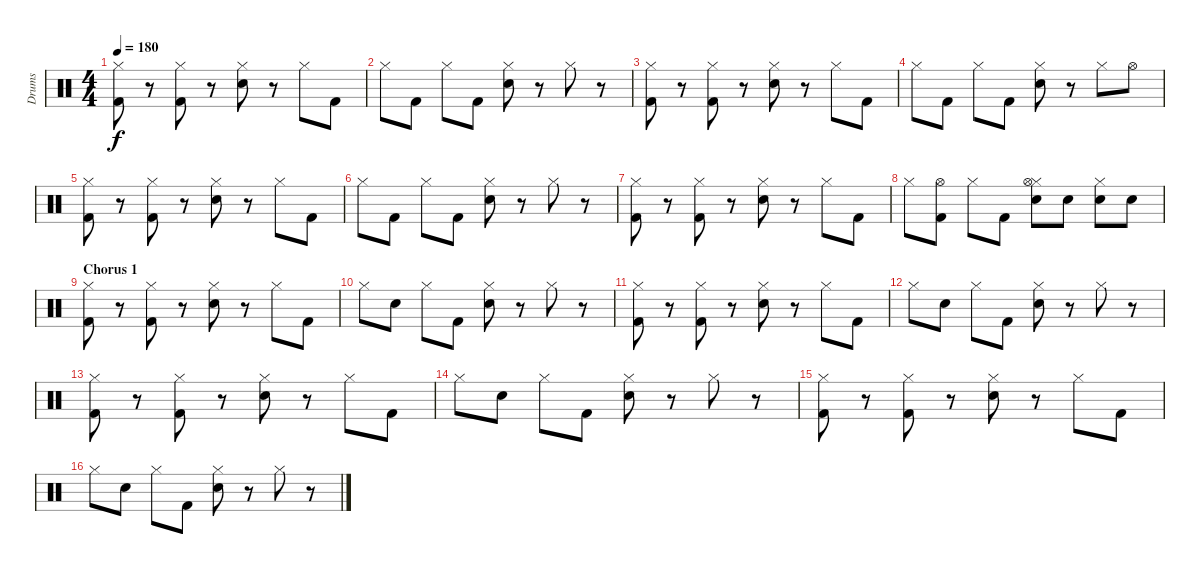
\track ("Drums" "Drums") {instrument percussion}
\staff {score}
\articulation defaults
\ts (4 4)
\tempo 180
\clef neutral
\ks c
("Hi-Hat (closed)" "Kick (hit) 2").8{dy f} r.8 ("Hi-Hat (closed)" "Kick (hit) 2").8 r.8 ("Hi-Hat (closed)" "Snare (hit) 2").8 r.8 "Hi-Hat (closed)".8 "Kick (hit) 2".8 |
"Hi-Hat (closed)".8 "Kick (hit) 2".8 "Hi-Hat (closed)".8 "Kick (hit) 2".8 ("Hi-Hat (closed)" "Snare (hit) 2").8 r.8 "Hi-Hat (closed)".8 r.8 |
("Hi-Hat (closed)" "Kick (hit) 2").8 r.8 ("Hi-Hat (closed)" "Kick (hit) 2").8 r.8 ("Hi-Hat (closed)" "Snare (hit) 2").8 r.8 "Hi-Hat (closed)".8 "Kick (hit) 2".8 |
"Hi-Hat (closed)".8 "Kick (hit) 2".8 "Hi-Hat (closed)".8 "Kick (hit) 2".8 ("Hi-Hat (closed)" "Snare (hit) 2").8 r.8 "Hi-Hat (closed)".8 "Hi-Hat (open)".8 |
("Hi-Hat (closed)" "Kick (hit) 2").8 r.8 ("Hi-Hat (closed)" "Kick (hit) 2").8 r.8 ("Hi-Hat (closed)" "Snare (hit) 2").8 r.8 "Hi-Hat (closed)".8 "Kick (hit) 2".8 |
"Hi-Hat (closed)".8 "Kick (hit) 2".8 "Hi-Hat (closed)".8 "Kick (hit) 2".8 ("Hi-Hat (closed)" "Snare (hit) 2").8 r.8 "Hi-Hat (closed)".8 r.8 |
("Hi-Hat (closed)" "Kick (hit) 2").8 r.8 ("Hi-Hat (closed)" "Kick (hit) 2").8 r.8 ("Hi-Hat (closed)" "Snare (hit) 2").8 r.8 "Hi-Hat (closed)".8 "Kick (hit) 2".8 |
"Hi-Hat (closed)".8 ("Kick (hit) 2" "Hi-Hat (open)").8 "Hi-Hat (closed)".8 "Kick (hit) 2".8 ("Hi-Hat (closed)" "Snare (hit) 2" "Hi-Hat (open)").8 "Snare (hit) 2".8 ("Hi-Hat (closed)" "Snare (hit) 2").8 "Snare (hit) 2".8 |
\section ("" "Chorus 1")
("Hi-Hat (closed)" "Kick (hit) 2").8 r.8 ("Hi-Hat (closed)" "Kick (hit) 2").8 r.8 ("Hi-Hat (closed)" "Snare (hit) 2").8 r.8 "Hi-Hat (closed)".8 "Kick (hit) 2".8 |
"Hi-Hat (closed)".8 "Snare (hit) 2".8 "Hi-Hat (closed)".8 "Kick (hit) 2".8 ("Hi-Hat (closed)" "Snare (hit) 2").8 r.8 "Hi-Hat (closed)".8 r.8 |
("Hi-Hat (closed)" "Kick (hit) 2").8 r.8 ("Hi-Hat (closed)" "Kick (hit) 2").8 r.8 ("Hi-Hat (closed)" "Snare (hit) 2").8 r.8 "Hi-Hat (closed)".8 "Kick (hit) 2".8 |
"Hi-Hat (closed)".8 "Snare (hit) 2".8 "Hi-Hat (closed)".8 "Kick (hit) 2".8 ("Hi-Hat (closed)" "Snare (hit) 2").8 r.8 "Hi-Hat (closed)".8 r.8 |
("Hi-Hat (closed)" "Kick (hit) 2").8 r.8 ("Hi-Hat (closed)" "Kick (hit) 2").8 r.8 ("Hi-Hat (closed)" "Snare (hit) 2").8 r.8 "Hi-Hat (closed)".8 "Kick (hit) 2".8 |
"Hi-Hat (closed)".8 "Snare (hit) 2".8 "Hi-Hat (closed)".8 "Kick (hit) 2".8 ("Hi-Hat (closed)" "Snare (hit) 2").8 r.8 "Hi-Hat (closed)".8 r.8 |
("Hi-Hat (closed)" "Kick (hit) 2").8 r.8 ("Hi-Hat (closed)" "Kick (hit) 2").8 r.8 ("Hi-Hat (closed)" "Snare (hit) 2").8 r.8 "Hi-Hat (closed)".8 "Kick (hit) 2".8 |
"Hi-Hat (closed)".8 "Snare (hit) 2".8 "Hi-Hat (closed)".8 "Kick (hit) 2".8 ("Hi-Hat (closed)" "Snare (hit) 2").8 r.8 "Hi-Hat (closed)".8 r.8
